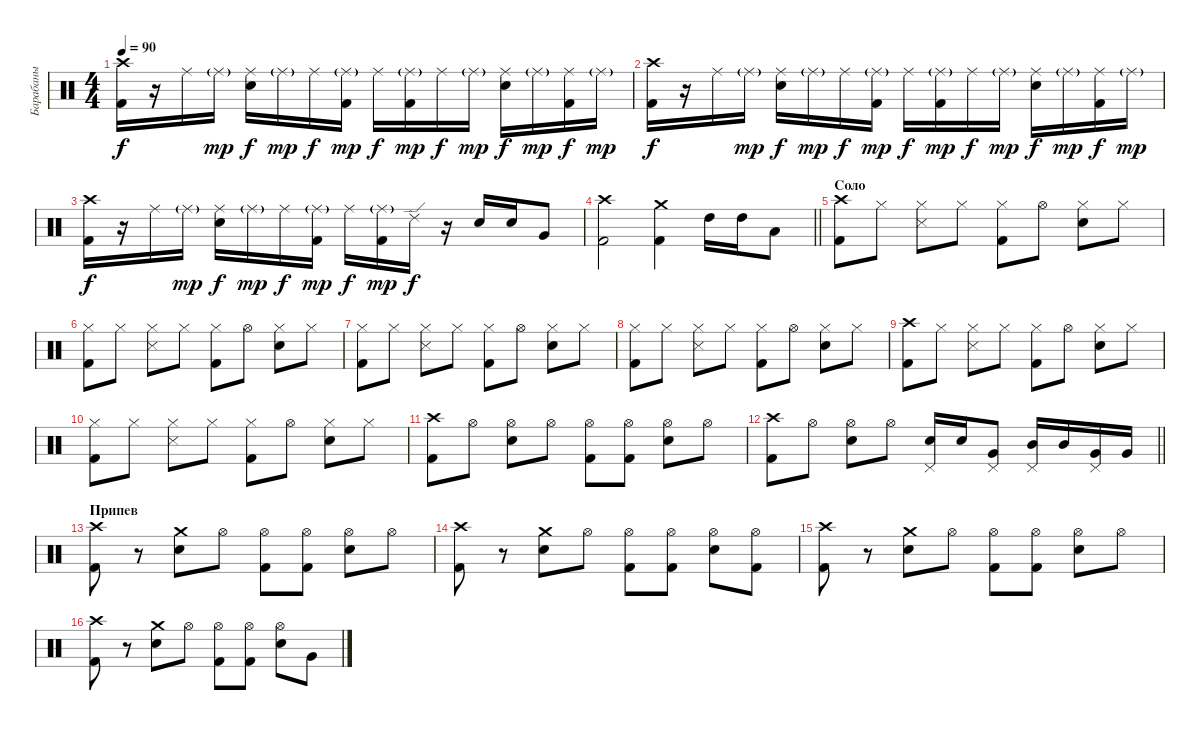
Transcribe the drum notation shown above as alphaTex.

\track ("Барабаны" "Барабаны") {instrument percussion}
\staff {score}
\articulation defaults
\ts (4 4)
\tempo 90
\clef neutral
\ks c
("Kick (hit) 2" "Crash high (hit)").16{dy f} r.16 "Ride (middle)".16 "Ride (middle)"{g}.16{dy mp} ("Snare (hit) 2" "Ride (middle)").16{dy f} "Ride (middle)"{g}.16{dy mp} "Ride (middle)".16{dy f} ("Kick (hit) 2" "Ride (middle)"{g}).16{dy mp} "Ride (middle)".16{dy f} ("Kick (hit) 2" "Ride (middle)"{g}).16{dy mp} "Ride (middle)".16{dy f} "Ride (middle)"{g}.16{dy mp} ("Snare (hit) 2" "Ride (middle)").16{dy f} "Ride (middle)"{g}.16{dy mp} ("Kick (hit) 2" "Ride (middle)").16{dy f} "Ride (middle)"{g}.16{dy mp} |
("Kick (hit) 2" "Crash high (hit)").16{dy f} r.16 "Ride (middle)".16 "Ride (middle)"{g}.16{dy mp} ("Snare (hit) 2" "Ride (middle)").16{dy f} "Ride (middle)"{g}.16{dy mp} "Ride (middle)".16{dy f} ("Kick (hit) 2" "Ride (middle)"{g}).16{dy mp} "Ride (middle)".16{dy f} ("Kick (hit) 2" "Ride (middle)"{g}).16{dy mp} "Ride (middle)".16{dy f} "Ride (middle)"{g}.16{dy mp} ("Snare (hit) 2" "Ride (middle)").16{dy f} "Ride (middle)"{g}.16{dy mp} ("Kick (hit) 2" "Ride (middle)").16{dy f} "Ride (middle)"{g}.16{dy mp} |
("Kick (hit) 2" "Crash high (hit)").16{dy f} r.16 "Ride (middle)".16 "Ride (middle)"{g}.16{dy mp} ("Snare (hit) 2" "Ride (middle)").16{dy f} "Ride (middle)"{g}.16{dy mp} "Ride (middle)".16{dy f} ("Kick (hit) 2" "Ride (middle)"{g}).16{dy mp} "Ride (middle)".16{dy f} ("Kick (hit) 2" "Ride (middle)"{g}).16{dy mp} "Ride (edge) 2".16{dy f} r.16 "Snare (hit) 2".16 "Snare (hit) 2".16 "Very Low Tom (hit)".8 |
\barLineRight lightlight
("Kick (hit) 2" "Crash high (hit)").2 ("Kick (hit) 2" "Crash medium (hit)").4 "High Tom (hit)".16 "High Tom (hit)".16 "Low Tom (hit)".8 |
\section ("" "Соло")
("Kick (hit) 2" "Crash high (hit)").8 "Hi-Hat (closed)".8 ("Snare (side stick) 3" "Hi-Hat (closed)").8 "Hi-Hat (closed)".8 ("Hi-Hat (closed)" "Kick (hit) 2").8 "Hi-Hat (open)".8 ("Hi-Hat (closed)" "Snare (hit) 2").8 "Hi-Hat (closed)".8 |
("Kick (hit) 2" "Hi-Hat (closed)").8 "Hi-Hat (closed)".8 ("Snare (side stick) 3" "Hi-Hat (closed)").8 "Hi-Hat (closed)".8 ("Hi-Hat (closed)" "Kick (hit) 2").8 "Hi-Hat (open)".8 ("Hi-Hat (closed)" "Snare (hit) 2").8 "Hi-Hat (closed)".8 |
("Kick (hit) 2" "Hi-Hat (closed)").8 "Hi-Hat (closed)".8 ("Snare (side stick) 3" "Hi-Hat (closed)").8 "Hi-Hat (closed)".8 ("Hi-Hat (closed)" "Kick (hit) 2").8 "Hi-Hat (open)".8 ("Hi-Hat (closed)" "Snare (hit) 2").8 "Hi-Hat (closed)".8 |
("Kick (hit) 2" "Hi-Hat (closed)").8 "Hi-Hat (closed)".8 ("Snare (side stick) 3" "Hi-Hat (closed)").8 "Hi-Hat (closed)".8 ("Hi-Hat (closed)" "Kick (hit) 2").8 "Hi-Hat (open)".8 ("Hi-Hat (closed)" "Snare (hit) 2").8 "Hi-Hat (closed)".8 |
("Kick (hit) 2" "Crash high (hit)").8 "Hi-Hat (closed)".8 ("Snare (side stick) 3" "Hi-Hat (closed)").8 "Hi-Hat (closed)".8 ("Hi-Hat (closed)" "Kick (hit) 2").8 "Hi-Hat (open)".8 ("Hi-Hat (closed)" "Snare (hit) 2").8 "Hi-Hat (closed)".8 |
("Kick (hit) 2" "Hi-Hat (closed)").8 "Hi-Hat (closed)".8 ("Snare (side stick) 3" "Hi-Hat (closed)").8 "Hi-Hat (closed)".8 ("Hi-Hat (closed)" "Kick (hit) 2").8 "Hi-Hat (open)".8 ("Hi-Hat (closed)" "Snare (hit) 2").8 "Hi-Hat (closed)".8 |
("Kick (hit) 2" "Crash high (hit)").8 "Hi-Hat (open)".8 ("Snare (hit) 2" "Hi-Hat (open)").8 "Hi-Hat (open)".8 ("Hi-Hat (open)" "Kick (hit) 2").8 ("Hi-Hat (open)" "Kick (hit) 2").8 ("Hi-Hat (open)" "Snare (hit) 2").8 "Hi-Hat (open)".8 |
\barLineRight lightlight
("Kick (hit) 2" "Crash high (hit)").8 "Hi-Hat (open)".8 ("Snare (hit) 2" "Hi-Hat (open)").8 "Hi-Hat (open)".8 ("Snare (hit) 2" "Pedal Hi-Hat (hit)").16 "Snare (hit) 2".16 ("Very Low Tom (hit)" "Pedal Hi-Hat (hit)").8 ("Mid Tom (hit)" "Pedal Hi-Hat (hit)").16 "Mid Tom (hit)".16 ("Pedal Hi-Hat (hit)" "Very Low Tom (hit)").16 "Very Low Tom (hit)".16 |
\section ("" "Припев")
("Kick (hit) 2" "Crash high (hit)").8 r.8 ("Snare (hit) 2" "Crash medium (hit)").8 "Hi-Hat (open)".8 ("Hi-Hat (open)" "Kick (hit) 2").8 ("Hi-Hat (open)" "Kick (hit) 2").8 ("Hi-Hat (open)" "Snare (hit) 2").8 "Hi-Hat (open)".8 |
("Kick (hit) 2" "Crash high (hit)").8 r.8 ("Snare (hit) 2" "Crash medium (hit)").8 "Hi-Hat (open)".8 ("Hi-Hat (open)" "Kick (hit) 2").8 ("Hi-Hat (open)" "Kick (hit) 2").8 ("Hi-Hat (open)" "Snare (hit) 2").8 ("Hi-Hat (open)" "Kick (hit) 2").8 |
("Kick (hit) 2" "Crash high (hit)").8 r.8 ("Snare (hit) 2" "Crash medium (hit)").8 "Hi-Hat (open)".8 ("Hi-Hat (open)" "Kick (hit) 2").8 ("Hi-Hat (open)" "Kick (hit) 2").8 ("Hi-Hat (open)" "Snare (hit) 2").8 "Hi-Hat (open)".8 |
("Kick (hit) 2" "Crash high (hit)").8 r.8 ("Snare (hit) 2" "Crash medium (hit)").8 "Hi-Hat (open)".8 ("Hi-Hat (open)" "Kick (hit) 2").8 ("Hi-Hat (open)" "Kick (hit) 2").8 ("Hi-Hat (open)" "Snare (hit) 2").8 "Very Low Tom (hit)".8
